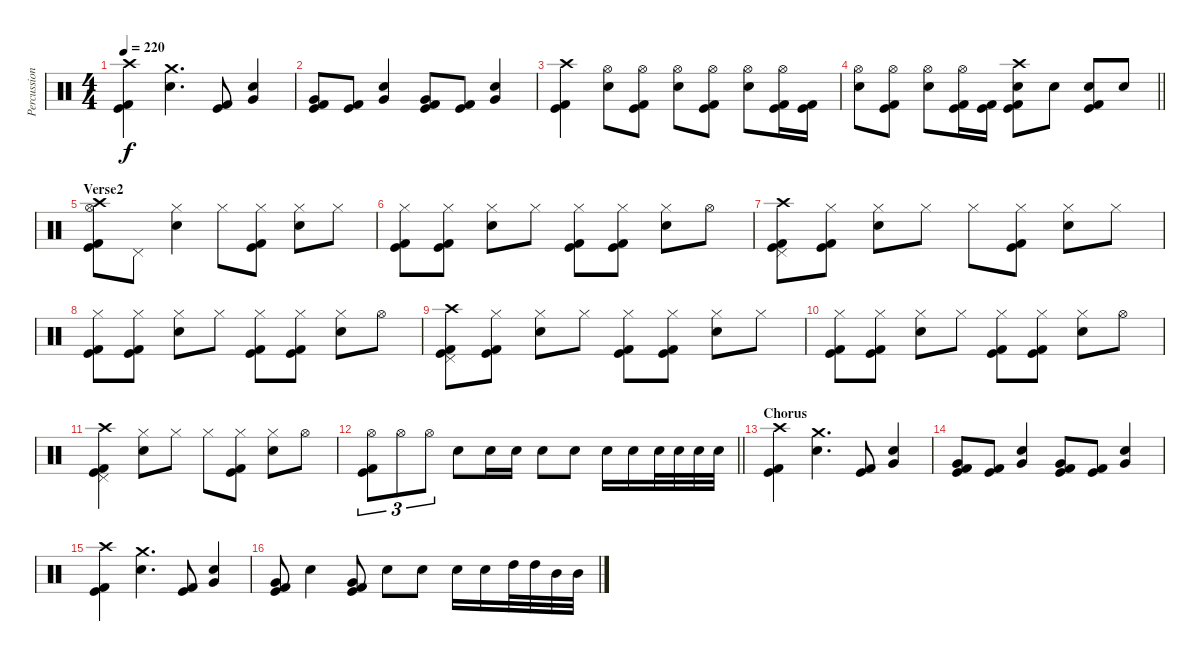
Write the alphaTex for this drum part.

\track ("Percussion" "Percussion") {instrument percussion}
\staff {score}
\articulation defaults
\ts (4 4)
\tempo 220
\clef neutral
\ks c
("Crash high (hit)" "Kick (hit)" "Kick (hit) 2").4{dy f} ("Crash medium (hit)" "Electric Snare (hit)").4{d} ("Kick (hit)" "Kick (hit) 2").8 ("Very Low Tom (hit)" "Electric Snare (hit)").4 |
("Very Low Tom (hit)" "Kick (hit)" "Kick (hit) 2").8 ("Kick (hit)" "Kick (hit) 2").8 ("Very Low Tom (hit)" "Electric Snare (hit)").4 ("Very Low Tom (hit)" "Kick (hit)" "Kick (hit) 2").8 ("Kick (hit)" "Kick (hit) 2").8 ("Very Low Tom (hit)" "Electric Snare (hit)").4 |
("Crash high (hit)" "Kick (hit)" "Kick (hit) 2").4 ("Hi-Hat (open)" "Electric Snare (hit)").8 ("Hi-Hat (open)" "Kick (hit)" "Kick (hit) 2").8 ("Hi-Hat (open)" "Electric Snare (hit)").8 ("Hi-Hat (open)" "Kick (hit)" "Kick (hit) 2").8 ("Hi-Hat (open)" "Electric Snare (hit)").8 ("Hi-Hat (open)" "Kick (hit)" "Kick (hit) 2").16 ("Kick (hit)" "Kick (hit) 2").16 |
\barLineRight lightlight
("Hi-Hat (open)" "Electric Snare (hit)").8 ("Hi-Hat (open)" "Kick (hit)" "Kick (hit) 2").8 ("Hi-Hat (open)" "Electric Snare (hit)").8 ("Hi-Hat (open)" "Kick (hit)" "Kick (hit) 2").16 ("Kick (hit)" "Kick (hit) 2").16 ("Crash high (hit)" "Electric Snare (hit)" "Kick (hit) 2" "Kick (hit)").8 "Electric Snare (hit)".8 ("Electric Snare (hit)" "Kick (hit)" "Kick (hit) 2").8 "Electric Snare (hit)".8 |
\section ("" "Verse2")
("Hi-Hat (open)" "Crash high (hit)" "Kick (hit)" "Kick (hit) 2").8 "Pedal Hi-Hat (hit)".8 ("Hi-Hat (closed)" "Electric Snare (hit)").4 "Hi-Hat (closed)".8 ("Hi-Hat (closed)" "Kick (hit)" "Kick (hit) 2").8 ("Hi-Hat (closed)" "Electric Snare (hit)").8 "Hi-Hat (closed)".8 |
("Hi-Hat (closed)" "Kick (hit)" "Kick (hit) 2").8 ("Hi-Hat (closed)" "Kick (hit)" "Kick (hit) 2").8 ("Hi-Hat (closed)" "Electric Snare (hit)").8 "Hi-Hat (closed)".8 ("Hi-Hat (closed)" "Kick (hit)" "Kick (hit) 2").8 ("Hi-Hat (closed)" "Kick (hit)" "Kick (hit) 2").8 ("Hi-Hat (closed)" "Electric Snare (hit)").8 "Hi-Hat (open)".8 |
("Pedal Hi-Hat (hit)" "Crash high (hit)" "Kick (hit)" "Kick (hit) 2").8 ("Hi-Hat (closed)" "Kick (hit)" "Kick (hit) 2").8 ("Hi-Hat (closed)" "Electric Snare (hit)").8 "Hi-Hat (closed)".8 "Hi-Hat (closed)".8 ("Hi-Hat (closed)" "Kick (hit)" "Kick (hit) 2").8 ("Hi-Hat (closed)" "Electric Snare (hit)").8 "Hi-Hat (closed)".8 |
("Hi-Hat (closed)" "Kick (hit)" "Kick (hit) 2").8 ("Hi-Hat (closed)" "Kick (hit)" "Kick (hit) 2").8 ("Hi-Hat (closed)" "Electric Snare (hit)").8 "Hi-Hat (closed)".8 ("Hi-Hat (closed)" "Kick (hit)" "Kick (hit) 2").8 ("Hi-Hat (closed)" "Kick (hit)" "Kick (hit) 2").8 ("Hi-Hat (closed)" "Electric Snare (hit)").8 "Hi-Hat (open)".8 |
("Pedal Hi-Hat (hit)" "Crash high (hit)" "Kick (hit)" "Kick (hit) 2").8 ("Hi-Hat (closed)" "Kick (hit)" "Kick (hit) 2").8 ("Hi-Hat (closed)" "Electric Snare (hit)").8 "Hi-Hat (closed)".8 ("Hi-Hat (closed)" "Kick (hit)" "Kick (hit) 2").8 ("Hi-Hat (closed)" "Kick (hit)" "Kick (hit) 2").8 ("Hi-Hat (closed)" "Electric Snare (hit)").8 "Hi-Hat (closed)".8 |
("Hi-Hat (closed)" "Kick (hit)" "Kick (hit) 2").8 ("Hi-Hat (closed)" "Kick (hit)" "Kick (hit) 2").8 ("Hi-Hat (closed)" "Electric Snare (hit)").8 "Hi-Hat (closed)".8 ("Hi-Hat (closed)" "Kick (hit)" "Kick (hit) 2").8 ("Hi-Hat (closed)" "Kick (hit)" "Kick (hit) 2").8 ("Hi-Hat (closed)" "Electric Snare (hit)").8 "Hi-Hat (open)".8 |
("Pedal Hi-Hat (hit)" "Crash high (hit)" "Kick (hit)" "Kick (hit) 2").4 ("Hi-Hat (closed)" "Electric Snare (hit)").8 "Hi-Hat (closed)".8 "Hi-Hat (closed)".8 ("Hi-Hat (closed)" "Kick (hit)" "Kick (hit) 2").8 ("Hi-Hat (closed)" "Electric Snare (hit)").8 "Hi-Hat (open)".8 |
\barLineRight lightlight
("Hi-Hat (open)" "Kick (hit)" "Kick (hit) 2").8{tu (3 2)} "Hi-Hat (open)".8{tu (3 2)} "Hi-Hat (open)".8{tu (3 2)} "Electric Snare (hit)".8 "Electric Snare (hit)".16 "Electric Snare (hit)".16 "Electric Snare (hit)".8 "Electric Snare (hit)".8 "Electric Snare (hit)".16 "Electric Snare (hit)".16 "Electric Snare (hit)".32 "Electric Snare (hit)".32 "Electric Snare (hit)".32 "Electric Snare (hit)".32 |
\section ("" "Chorus")
("Crash high (hit)" "Kick (hit)" "Kick (hit) 2").4 ("Crash medium (hit)" "Electric Snare (hit)").4{d} ("Kick (hit)" "Kick (hit) 2").8 ("Very Low Tom (hit)" "Electric Snare (hit)").4 |
("Very Low Tom (hit)" "Kick (hit)" "Kick (hit) 2").8 ("Kick (hit)" "Kick (hit) 2").8 ("Very Low Tom (hit)" "Electric Snare (hit)").4 ("Very Low Tom (hit)" "Kick (hit)" "Kick (hit) 2").8 ("Kick (hit)" "Kick (hit) 2").8 ("Very Low Tom (hit)" "Electric Snare (hit)").4 |
("Crash high (hit)" "Kick (hit)" "Kick (hit) 2").4 ("Crash medium (hit)" "Electric Snare (hit)").4{d} ("Kick (hit)" "Kick (hit) 2").8 ("Very Low Tom (hit)" "Electric Snare (hit)").4 |
("Very Low Tom (hit)" "Kick (hit)" "Kick (hit) 2").8 "Electric Snare (hit)".4 ("Very Low Tom (hit)" "Kick (hit)" "Kick (hit) 2").8 "Electric Snare (hit)".8 "Electric Snare (hit)".8 "Electric Snare (hit)".16 "Electric Snare (hit)".16 "High Tom (hit)".32 "High Tom (hit)".32 "Mid Tom (hit)".32 "Mid Tom (hit)".32
